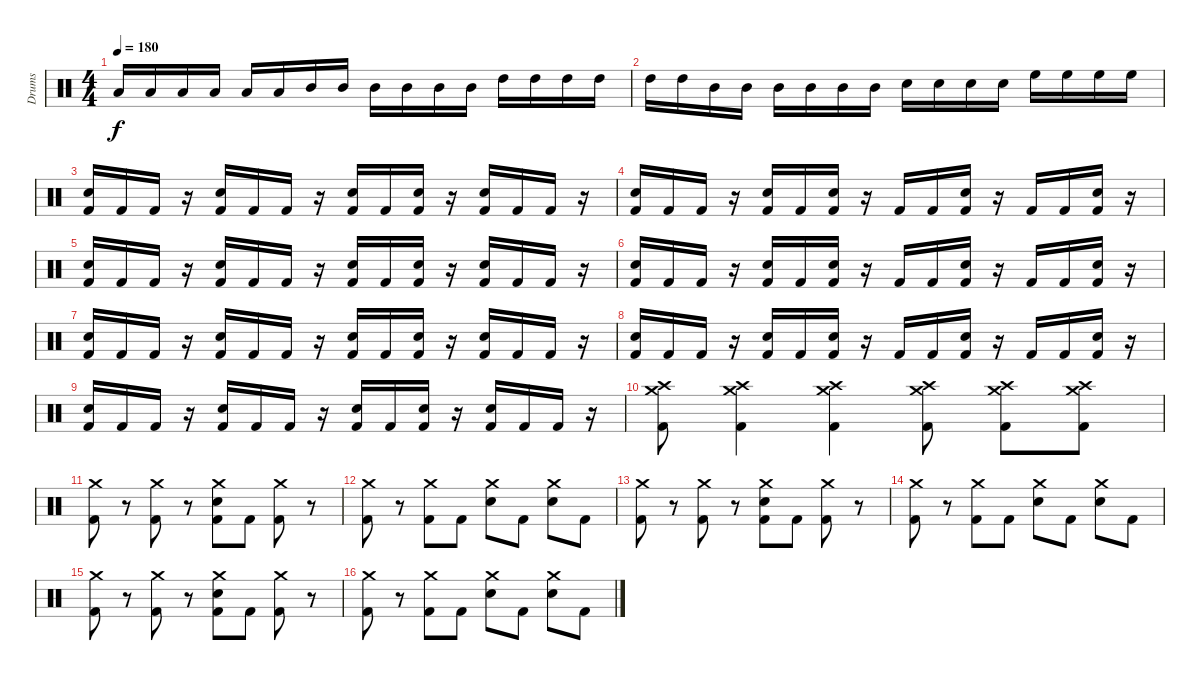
\track ("Drums" "Drums") {instrument percussion}
\staff {score}
\articulation defaults
\ts (4 4)
\tempo 180
\clef neutral
\ks c "Low Tom (hit)".16{dy f} "Low Tom (hit)".16 "Low Tom (hit)".16 "Low Tom (hit)".16 "Low Tom (hit)".16 "Low Tom (hit)".16 "Mid Tom (hit)".16 "Mid Tom (hit)".16 "Mid Tom (hit)".16 "Mid Tom (hit)".16 "Mid Tom (hit)".16 "Mid Tom (hit)".16 "High Tom (hit)".16 "High Tom (hit)".16 "High Tom (hit)".16 "High Tom (hit)".16
|
"High Tom (hit)".16 "High Tom (hit)".16 "Mid Tom (hit)".16 "Mid Tom (hit)".16 "Mid Tom (hit)".16 "Mid Tom (hit)".16 "Mid Tom (hit)".16 "Mid Tom (hit)".16 "Snare (hit) 2".16 "Snare (hit) 2".16 "Snare (hit) 2".16 "Snare (hit) 2".16 "High Floor Tom (hit)".16 "High Floor Tom (hit)".16 "High Floor Tom (hit)".16 "High Floor Tom (hit)".16 |
("Snare (hit) 2" "Kick (hit) 2").16 "Kick (hit) 2".16 "Kick (hit) 2".16 r.16 ("Snare (hit) 2" "Kick (hit) 2").16 "Kick (hit) 2".16 "Kick (hit) 2".16 r.16 ("Snare (hit) 2" "Kick (hit) 2").16 "Kick (hit) 2".16 ("Snare (hit) 2" "Kick (hit) 2").16 r.16 ("Snare (hit) 2" "Kick (hit) 2").16 "Kick (hit) 2".16 "Kick (hit) 2".16 r.16 |
("Snare (hit) 2" "Kick (hit) 2").16 "Kick (hit) 2".16 "Kick (hit) 2".16 r.16 ("Snare (hit) 2" "Kick (hit) 2").16 "Kick (hit) 2".16 ("Snare (hit) 2" "Kick (hit) 2").16 r.16 "Kick (hit) 2".16 "Kick (hit) 2".16 ("Snare (hit) 2" "Kick (hit) 2").16 r.16 "Kick (hit) 2".16 "Kick (hit) 2".16 ("Snare (hit) 2" "Kick (hit) 2").16 r.16 |
("Snare (hit) 2" "Kick (hit) 2").16 "Kick (hit) 2".16 "Kick (hit) 2".16 r.16 ("Snare (hit) 2" "Kick (hit) 2").16 "Kick (hit) 2".16 "Kick (hit) 2".16 r.16 ("Snare (hit) 2" "Kick (hit) 2").16 "Kick (hit) 2".16 ("Snare (hit) 2" "Kick (hit) 2").16 r.16 ("Snare (hit) 2" "Kick (hit) 2").16 "Kick (hit) 2".16 "Kick (hit) 2".16 r.16 |
("Snare (hit) 2" "Kick (hit) 2").16 "Kick (hit) 2".16 "Kick (hit) 2".16 r.16 ("Snare (hit) 2" "Kick (hit) 2").16 "Kick (hit) 2".16 ("Snare (hit) 2" "Kick (hit) 2").16 r.16 "Kick (hit) 2".16 "Kick (hit) 2".16 ("Snare (hit) 2" "Kick (hit) 2").16 r.16 "Kick (hit) 2".16 "Kick (hit) 2".16 ("Snare (hit) 2" "Kick (hit) 2").16 r.16 |
("Snare (hit) 2" "Kick (hit) 2").16 "Kick (hit) 2".16 "Kick (hit) 2".16 r.16 ("Snare (hit) 2" "Kick (hit) 2").16 "Kick (hit) 2".16 "Kick (hit) 2".16 r.16 ("Snare (hit) 2" "Kick (hit) 2").16 "Kick (hit) 2".16 ("Snare (hit) 2" "Kick (hit) 2").16 r.16 ("Snare (hit) 2" "Kick (hit) 2").16 "Kick (hit) 2".16 "Kick (hit) 2".16 r.16 |
("Snare (hit) 2" "Kick (hit) 2").16 "Kick (hit) 2".16 "Kick (hit) 2".16 r.16 ("Snare (hit) 2" "Kick (hit) 2").16 "Kick (hit) 2".16 ("Snare (hit) 2" "Kick (hit) 2").16 r.16 "Kick (hit) 2".16 "Kick (hit) 2".16 ("Snare (hit) 2" "Kick (hit) 2").16 r.16 "Kick (hit) 2".16 "Kick (hit) 2".16 ("Snare (hit) 2" "Kick (hit) 2").16 r.16 |
("Snare (hit) 2" "Kick (hit) 2").16 "Kick (hit) 2".16 "Kick (hit) 2".16 r.16 ("Snare (hit) 2" "Kick (hit) 2").16 "Kick (hit) 2".16 "Kick (hit) 2".16 r.16 ("Snare (hit) 2" "Kick (hit) 2").16 "Kick (hit) 2".16 ("Snare (hit) 2" "Kick (hit) 2").16 r.16 ("Snare (hit) 2" "Kick (hit) 2").16 "Kick (hit) 2".16 "Kick (hit) 2".16 r.16 |
("Crash high (hit)" "Crash medium (hit)" "Kick (hit) 2").8 ("Crash high (hit)" "Crash medium (hit)" "Kick (hit) 2").4 ("Crash high (hit)" "Crash medium (hit)" "Kick (hit) 2").4 ("Crash high (hit)" "Crash medium (hit)" "Kick (hit) 2").8 ("Crash high (hit)" "Crash medium (hit)" "Kick (hit) 2").8 ("Crash high (hit)" "Crash medium (hit)" "Kick (hit) 2").8 |
("Crash medium (hit)" "Kick (hit) 2").8 r.8 ("Crash medium (hit)" "Kick (hit) 2").8 r.8 ("Crash medium (hit)" "Snare (hit) 2" "Kick (hit) 2").8 "Kick (hit) 2".8 ("Crash medium (hit)" "Kick (hit) 2").8 r.8 |
("Crash medium (hit)" "Kick (hit) 2").8 r.8 ("Crash medium (hit)" "Kick (hit) 2").8 "Kick (hit) 2".8 ("Crash medium (hit)" "Snare (hit) 2").8 "Kick (hit) 2".8 ("Crash medium (hit)" "Snare (hit) 2").8 "Kick (hit) 2".8 |
("Crash medium (hit)" "Kick (hit) 2").8 r.8 ("Crash medium (hit)" "Kick (hit) 2").8 r.8 ("Crash medium (hit)" "Snare (hit) 2" "Kick (hit) 2").8 "Kick (hit) 2".8 ("Crash medium (hit)" "Kick (hit) 2").8 r.8 |
("Crash medium (hit)" "Kick (hit) 2").8 r.8 ("Crash medium (hit)" "Kick (hit) 2").8 "Kick (hit) 2".8 ("Crash medium (hit)" "Snare (hit) 2").8 "Kick (hit) 2".8 ("Crash medium (hit)" "Snare (hit) 2").8 "Kick (hit) 2".8 |
("Crash medium (hit)" "Kick (hit) 2").8 r.8 ("Crash medium (hit)" "Kick (hit) 2").8 r.8 ("Crash medium (hit)" "Snare (hit) 2" "Kick (hit) 2").8 "Kick (hit) 2".8 ("Crash medium (hit)" "Kick (hit) 2").8 r.8 |
("Crash medium (hit)" "Kick (hit) 2").8 r.8 ("Crash medium (hit)" "Kick (hit) 2").8 "Kick (hit) 2".8 ("Crash medium (hit)" "Snare (hit) 2").8 "Kick (hit) 2".8 ("Crash medium (hit)" "Snare (hit) 2").8 "Kick (hit) 2".8
